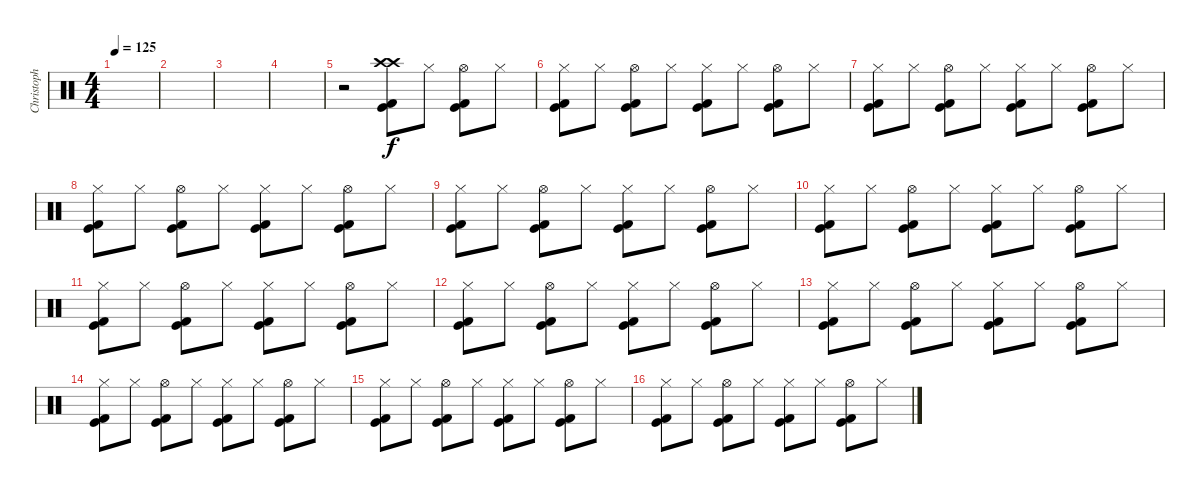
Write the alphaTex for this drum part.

\track ("Christoph (Drums)" "Christoph ") {instrument percussion}
\staff {score}
\articulation defaults
\ts (4 4)
\tempo 125
\clef neutral
\ks c
|
|
|
|
r.2 ("Crash high (hit)" "Crash high (hit)" "Kick (hit) 2" "Kick (hit)").8 "Hi-Hat (closed)".8 ("Hi-Hat (open)" "Kick (hit) 2" "Kick (hit)").8 "Hi-Hat (closed)".8 |
("Hi-Hat (closed)" "Kick (hit) 2" "Kick (hit)").8 "Hi-Hat (closed)".8 ("Hi-Hat (open)" "Kick (hit) 2" "Kick (hit)").8 "Hi-Hat (closed)".8 ("Hi-Hat (closed)" "Kick (hit) 2" "Kick (hit)").8 "Hi-Hat (closed)".8 ("Hi-Hat (open)" "Kick (hit) 2" "Kick (hit)").8 "Hi-Hat (closed)".8 |
("Hi-Hat (closed)" "Kick (hit) 2" "Kick (hit)").8 "Hi-Hat (closed)".8 ("Hi-Hat (open)" "Kick (hit) 2" "Kick (hit)").8 "Hi-Hat (closed)".8 ("Hi-Hat (closed)" "Kick (hit) 2" "Kick (hit)").8 "Hi-Hat (closed)".8 ("Hi-Hat (open)" "Kick (hit) 2" "Kick (hit)").8 "Hi-Hat (closed)".8 |
("Hi-Hat (closed)" "Kick (hit) 2" "Kick (hit)").8 "Hi-Hat (closed)".8 ("Hi-Hat (open)" "Kick (hit) 2" "Kick (hit)").8 "Hi-Hat (closed)".8 ("Hi-Hat (closed)" "Kick (hit) 2" "Kick (hit)").8 "Hi-Hat (closed)".8 ("Hi-Hat (open)" "Kick (hit) 2" "Kick (hit)").8 "Hi-Hat (closed)".8 |
("Hi-Hat (closed)" "Kick (hit) 2" "Kick (hit)").8 "Hi-Hat (closed)".8 ("Hi-Hat (open)" "Kick (hit) 2" "Kick (hit)").8 "Hi-Hat (closed)".8 ("Hi-Hat (closed)" "Kick (hit) 2" "Kick (hit)").8 "Hi-Hat (closed)".8 ("Hi-Hat (open)" "Kick (hit) 2" "Kick (hit)").8 "Hi-Hat (closed)".8 |
("Hi-Hat (closed)" "Kick (hit) 2" "Kick (hit)").8 "Hi-Hat (closed)".8 ("Hi-Hat (open)" "Kick (hit) 2" "Kick (hit)").8 "Hi-Hat (closed)".8 ("Hi-Hat (closed)" "Kick (hit) 2" "Kick (hit)").8 "Hi-Hat (closed)".8 ("Hi-Hat (open)" "Kick (hit) 2" "Kick (hit)").8 "Hi-Hat (closed)".8 |
("Hi-Hat (closed)" "Kick (hit) 2" "Kick (hit)").8 "Hi-Hat (closed)".8 ("Hi-Hat (open)" "Kick (hit) 2" "Kick (hit)").8 "Hi-Hat (closed)".8 ("Hi-Hat (closed)" "Kick (hit) 2" "Kick (hit)").8 "Hi-Hat (closed)".8 ("Hi-Hat (open)" "Kick (hit) 2" "Kick (hit)").8 "Hi-Hat (closed)".8 |
("Hi-Hat (closed)" "Kick (hit) 2" "Kick (hit)").8 "Hi-Hat (closed)".8 ("Hi-Hat (open)" "Kick (hit) 2" "Kick (hit)").8 "Hi-Hat (closed)".8 ("Hi-Hat (closed)" "Kick (hit) 2" "Kick (hit)").8 "Hi-Hat (closed)".8 ("Hi-Hat (open)" "Kick (hit) 2" "Kick (hit)").8 "Hi-Hat (closed)".8 |
("Hi-Hat (closed)" "Kick (hit) 2" "Kick (hit)").8 "Hi-Hat (closed)".8 ("Hi-Hat (open)" "Kick (hit) 2" "Kick (hit)").8 "Hi-Hat (closed)".8 ("Hi-Hat (closed)" "Kick (hit) 2" "Kick (hit)").8 "Hi-Hat (closed)".8 ("Hi-Hat (open)" "Kick (hit) 2" "Kick (hit)").8 "Hi-Hat (closed)".8 |
("Hi-Hat (closed)" "Kick (hit) 2" "Kick (hit)").8 "Hi-Hat (closed)".8 ("Hi-Hat (open)" "Kick (hit) 2" "Kick (hit)").8 "Hi-Hat (closed)".8 ("Hi-Hat (closed)" "Kick (hit) 2" "Kick (hit)").8 "Hi-Hat (closed)".8 ("Hi-Hat (open)" "Kick (hit) 2" "Kick (hit)").8 "Hi-Hat (closed)".8 |
("Hi-Hat (closed)" "Kick (hit) 2" "Kick (hit)").8 "Hi-Hat (closed)".8 ("Hi-Hat (open)" "Kick (hit) 2" "Kick (hit)").8 "Hi-Hat (closed)".8 ("Hi-Hat (closed)" "Kick (hit) 2" "Kick (hit)").8 "Hi-Hat (closed)".8 ("Hi-Hat (open)" "Kick (hit) 2" "Kick (hit)").8 "Hi-Hat (closed)".8 |
("Hi-Hat (closed)" "Kick (hit) 2" "Kick (hit)").8 "Hi-Hat (closed)".8 ("Hi-Hat (open)" "Kick (hit) 2" "Kick (hit)").8 "Hi-Hat (closed)".8 ("Hi-Hat (closed)" "Kick (hit) 2" "Kick (hit)").8 "Hi-Hat (closed)".8 ("Hi-Hat (open)" "Kick (hit) 2" "Kick (hit)").8 "Hi-Hat (closed)".8
